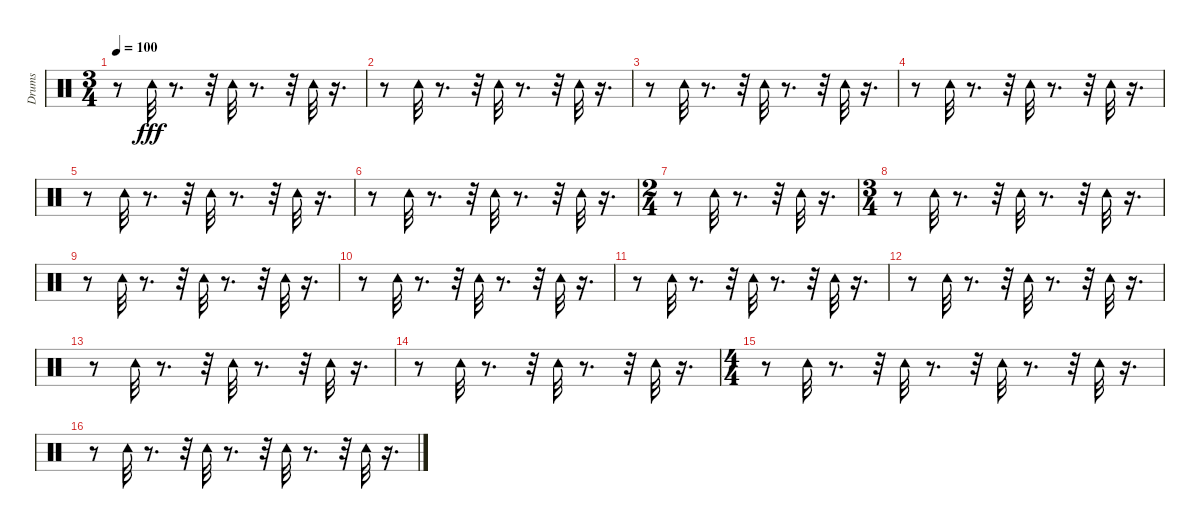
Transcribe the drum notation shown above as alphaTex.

\track ("Drums" "Drums") {instrument percussion}
\staff {score}
\articulation defaults
\ts (3 4)
\tempo 100
\clef neutral
\ks c
r.8{dy fff} "Tambourine (hit)".32 r.8{d} r.32 "Tambourine (hit)".32 r.8{d} r.32 "Tambourine (hit)".32 r.16{d} |
r.8 "Tambourine (hit)".32 r.8{d} r.32 "Tambourine (hit)".32 r.8{d} r.32 "Tambourine (hit)".32 r.16{d} |
r.8 "Tambourine (hit)".32 r.8{d} r.32 "Tambourine (hit)".32 r.8{d} r.32 "Tambourine (hit)".32 r.16{d} |
r.8 "Tambourine (hit)".32 r.8{d} r.32 "Tambourine (hit)".32 r.8{d} r.32 "Tambourine (hit)".32 r.16{d} |
r.8 "Tambourine (hit)".32 r.8{d} r.32 "Tambourine (hit)".32 r.8{d} r.32 "Tambourine (hit)".32 r.16{d} |
r.8 "Tambourine (hit)".32 r.8{d} r.32 "Tambourine (hit)".32 r.8{d} r.32 "Tambourine (hit)".32 r.16{d} |
\ts (2 4)
r.8 "Tambourine (hit)".32 r.8{d} r.32 "Tambourine (hit)".32 r.16{d} |
\ts (3 4)
r.8 "Tambourine (hit)".32 r.8{d} r.32 "Tambourine (hit)".32 r.8{d} r.32 "Tambourine (hit)".32 r.16{d} |
r.8 "Tambourine (hit)".32 r.8{d} r.32 "Tambourine (hit)".32 r.8{d} r.32 "Tambourine (hit)".32 r.16{d} |
r.8 "Tambourine (hit)".32 r.8{d} r.32 "Tambourine (hit)".32 r.8{d} r.32 "Tambourine (hit)".32 r.16{d} |
r.8 "Tambourine (hit)".32 r.8{d} r.32 "Tambourine (hit)".32 r.8{d} r.32 "Tambourine (hit)".32 r.16{d} |
r.8 "Tambourine (hit)".32 r.8{d} r.32 "Tambourine (hit)".32 r.8{d} r.32 "Tambourine (hit)".32 r.16{d} |
r.8 "Tambourine (hit)".32 r.8{d} r.32 "Tambourine (hit)".32 r.8{d} r.32 "Tambourine (hit)".32 r.16{d} |
r.8 "Tambourine (hit)".32 r.8{d} r.32 "Tambourine (hit)".32 r.8{d} r.32 "Tambourine (hit)".32 r.16{d} |
\ts (4 4)
r.8 "Tambourine (hit)".32 r.8{d} r.32 "Tambourine (hit)".32 r.8{d} r.32 "Tambourine (hit)".32 r.8{d} r.32 "Tambourine (hit)".32 r.16{d} |
r.8 "Tambourine (hit)".32 r.8{d} r.32 "Tambourine (hit)".32 r.8{d} r.32 "Tambourine (hit)".32 r.8{d} r.32 "Tambourine (hit)".32 r.16{d}
